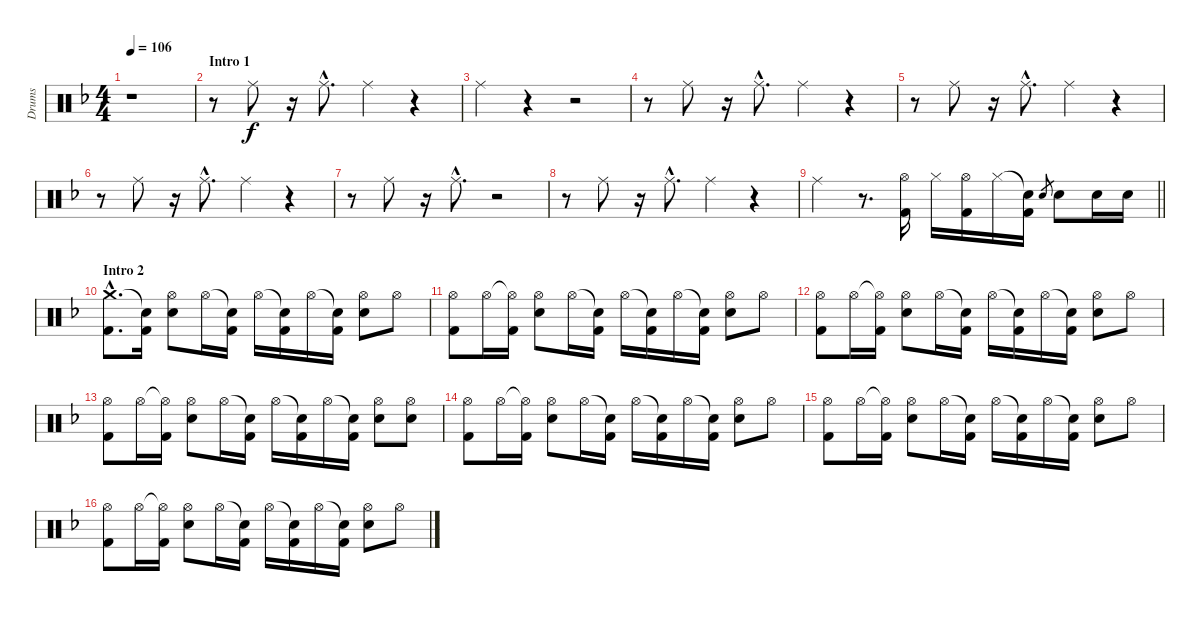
\track ("Drums" "Drums") {instrument percussion}
\staff {score}
\articulation defaults
\ts (4 4)
\tempo 106
\clef neutral
\ks f
r.1{dy f} |
\section ("" "Intro 1")
r.8 "Ride (middle)".8 r.16 "Ride (middle)"{hac}.8{d} "Ride (middle)".4 r.4 |
"Ride (middle)".4 r.4 r.2 |
r.8 "Ride (middle)".8 r.16 "Ride (middle)"{hac}.8{d} "Ride (middle)".4 r.4 |
r.8 "Ride (middle)".8 r.16 "Ride (middle)"{hac}.8{d} "Ride (middle)".4 r.4 |
r.8 "Ride (middle)".8 r.16 "Ride (middle)"{hac}.8{d} "Ride (middle)".4 r.4 |
r.8 "Ride (middle)".8 r.16 "Ride (middle)"{hac}.8{d} r.2 |
r.8 "Ride (middle)".8 r.16 "Ride (middle)"{hac}.8{d} "Ride (middle)".4 r.4 |
\barLineRight lightlight "Ride (middle)".4
r.8{d} ("Hi-Hat (open)" "Kick (hit) 2").16 "Hi-Hat (closed)".16 ("Hi-Hat (open)" "Kick (hit) 2").16 "Hi-Hat (closed)".16 ("Snare (hit)"{t} "Kick (hit) 2").16 "Electric Snare (hit)".8{gr} "Electric Snare (hit)".8 "Electric Snare (hit)".16 "Electric Snare (hit)".16 |
\section ("" "Intro 2")
("Crash medium (hit)"{hac} "Kick (hit) 2"{hac}).8{d} ("Snare (hit)"{t} "Kick (hit) 2").16 ("Hi-Hat (open)" "Electric Snare (hit)").8 "Hi-Hat (open)".16 ("Snare (hit)"{t} "Kick (hit) 2").16 "Hi-Hat (open)".16 ("Snare (hit)"{t} "Kick (hit) 2").16 "Hi-Hat (open)".16 ("Snare (hit)"{t} "Kick (hit) 2").16 ("Hi-Hat (open)" "Electric Snare (hit)").8 "Hi-Hat (open)".8 |
("Hi-Hat (open)" "Kick (hit) 2").8 "Hi-Hat (open)".16 ("Hi-Hat (open)"{t} "Kick (hit) 2").16 ("Hi-Hat (open)" "Electric Snare (hit)").8 "Hi-Hat (open)".16 ("Snare (hit)"{t} "Kick (hit) 2").16 "Hi-Hat (open)".16 ("Snare (hit)"{t} "Kick (hit) 2").16 "Hi-Hat (open)".16 ("Snare (hit)"{t} "Kick (hit) 2").16 ("Hi-Hat (open)" "Electric Snare (hit)").8 "Hi-Hat (open)".8 |
("Hi-Hat (open)" "Kick (hit) 2").8 "Hi-Hat (open)".16 ("Hi-Hat (open)"{t} "Kick (hit) 2").16 ("Hi-Hat (open)" "Electric Snare (hit)").8 "Hi-Hat (open)".16 ("Snare (hit)"{t} "Kick (hit) 2").16 "Hi-Hat (open)".16 ("Snare (hit)"{t} "Kick (hit) 2").16 "Hi-Hat (open)".16 ("Snare (hit)"{t} "Kick (hit) 2").16 ("Hi-Hat (open)" "Electric Snare (hit)").8 "Hi-Hat (open)".8 |
("Hi-Hat (open)" "Kick (hit) 2").8 "Hi-Hat (open)".16 ("Hi-Hat (open)"{t} "Kick (hit) 2").16 ("Hi-Hat (open)" "Electric Snare (hit)").8 "Hi-Hat (open)".16 ("Snare (hit)"{t} "Kick (hit) 2").16 "Hi-Hat (open)".16 ("Snare (hit)"{t} "Kick (hit) 2").16 "Hi-Hat (open)".16 ("Snare (hit)"{t} "Kick (hit) 2").16 ("Hi-Hat (open)" "Electric Snare (hit)").8 ("Hi-Hat (open)" "Electric Snare (hit)").8 |
("Hi-Hat (open)" "Kick (hit) 2").8 "Hi-Hat (open)".16 ("Hi-Hat (open)"{t} "Kick (hit) 2").16 ("Hi-Hat (open)" "Electric Snare (hit)").8 "Hi-Hat (open)".16 ("Snare (hit)"{t} "Kick (hit) 2").16 "Hi-Hat (open)".16 ("Snare (hit)"{t} "Kick (hit) 2").16 "Hi-Hat (open)".16 ("Snare (hit)"{t} "Kick (hit) 2").16 ("Hi-Hat (open)" "Electric Snare (hit)").8 "Hi-Hat (open)".8 |
("Hi-Hat (open)" "Kick (hit) 2").8 "Hi-Hat (open)".16 ("Hi-Hat (open)"{t} "Kick (hit) 2").16 ("Hi-Hat (open)" "Electric Snare (hit)").8 "Hi-Hat (open)".16 ("Snare (hit)"{t} "Kick (hit) 2").16 "Hi-Hat (open)".16 ("Snare (hit)"{t} "Kick (hit) 2").16 "Hi-Hat (open)".16 ("Snare (hit)"{t} "Kick (hit) 2").16 ("Hi-Hat (open)" "Electric Snare (hit)").8 "Hi-Hat (open)".8 |
("Hi-Hat (open)" "Kick (hit) 2").8 "Hi-Hat (open)".16 ("Hi-Hat (open)"{t} "Kick (hit) 2").16 ("Hi-Hat (open)" "Electric Snare (hit)").8 "Hi-Hat (open)".16 ("Snare (hit)"{t} "Kick (hit) 2").16 "Hi-Hat (open)".16 ("Snare (hit)"{t} "Kick (hit) 2").16 "Hi-Hat (open)".16 ("Snare (hit)"{t} "Kick (hit) 2").16 ("Hi-Hat (open)" "Electric Snare (hit)").8 "Hi-Hat (open)".8
